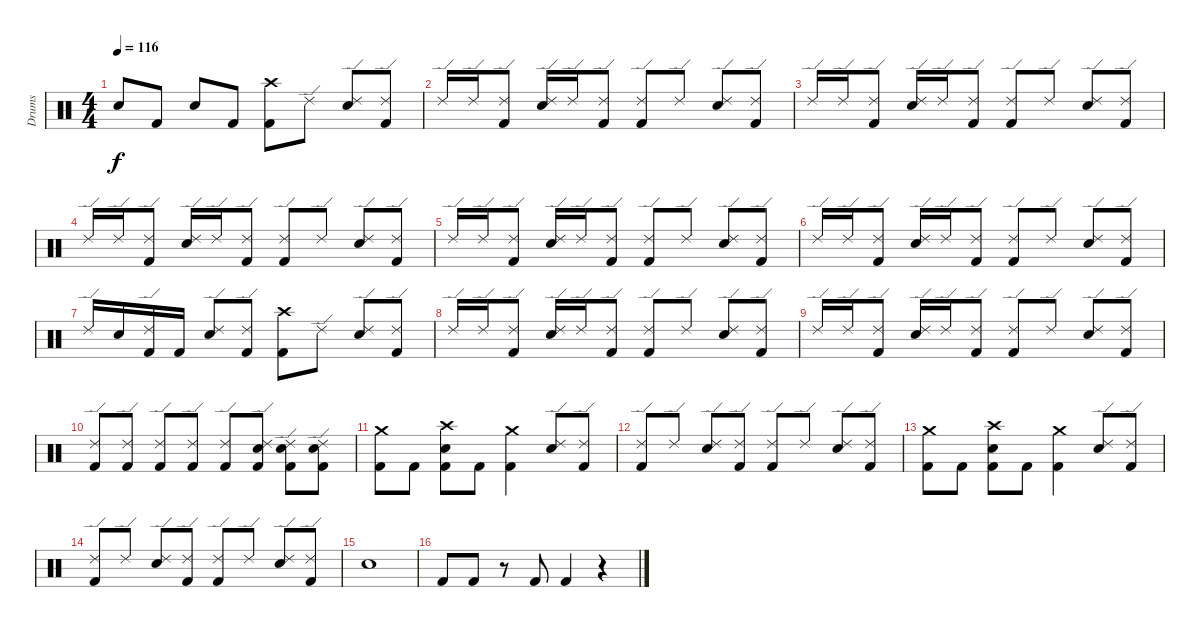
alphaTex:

\track ("Drums" "Drums") {instrument percussion}
\staff {score}
\articulation defaults
\ts (4 4)
\tempo 116
\clef neutral
\ks c "Electric Snare (hit)".8{dy f} "Kick (hit) 2".8 "Electric Snare (hit)".8 "Kick (hit) 2".8
("Kick (hit) 2" "Crash high (hit)").8 "Ride (edge) 2".8 ("Electric Snare (hit)" "Ride (edge) 2").8 ("Kick (hit) 2" "Ride (edge) 2").8 |
"Ride (edge) 2".16 "Ride (edge) 2".16 ("Kick (hit) 2" "Ride (edge) 2").8 ("Electric Snare (hit)" "Ride (edge) 2").16 "Ride (edge) 2".16 ("Kick (hit) 2" "Ride (edge) 2").8 ("Kick (hit) 2" "Ride (edge) 2").8 "Ride (edge) 2".8 ("Electric Snare (hit)" "Ride (edge) 2").8 ("Kick (hit) 2" "Ride (edge) 2").8 |
"Ride (edge) 2".16 "Ride (edge) 2".16 ("Kick (hit) 2" "Ride (edge) 2").8 ("Electric Snare (hit)" "Ride (edge) 2").16 "Ride (edge) 2".16 ("Kick (hit) 2" "Ride (edge) 2").8 ("Kick (hit) 2" "Ride (edge) 2").8 "Ride (edge) 2".8 ("Electric Snare (hit)" "Ride (edge) 2").8 ("Kick (hit) 2" "Ride (edge) 2").8 |
"Ride (edge) 2".16 "Ride (edge) 2".16 ("Kick (hit) 2" "Ride (edge) 2").8 ("Electric Snare (hit)" "Ride (edge) 2").16 "Ride (edge) 2".16 ("Kick (hit) 2" "Ride (edge) 2").8 ("Kick (hit) 2" "Ride (edge) 2").8 "Ride (edge) 2".8 ("Electric Snare (hit)" "Ride (edge) 2").8 ("Kick (hit) 2" "Ride (edge) 2").8 |
"Ride (edge) 2".16 "Ride (edge) 2".16 ("Kick (hit) 2" "Ride (edge) 2").8 ("Electric Snare (hit)" "Ride (edge) 2").16 "Ride (edge) 2".16 ("Kick (hit) 2" "Ride (edge) 2").8 ("Kick (hit) 2" "Ride (edge) 2").8 "Ride (edge) 2".8 ("Electric Snare (hit)" "Ride (edge) 2").8 ("Kick (hit) 2" "Ride (edge) 2").8 |
"Ride (edge) 2".16 "Ride (edge) 2".16 ("Kick (hit) 2" "Ride (edge) 2").8 ("Electric Snare (hit)" "Ride (edge) 2").16 "Ride (edge) 2".16 ("Kick (hit) 2" "Ride (edge) 2").8 ("Kick (hit) 2" "Ride (edge) 2").8 "Ride (edge) 2".8 ("Electric Snare (hit)" "Ride (edge) 2").8 ("Kick (hit) 2" "Ride (edge) 2").8 |
"Ride (edge) 2".16 "Electric Snare (hit)".16 ("Kick (hit) 2" "Ride (edge) 2").16 "Kick (hit) 2".16 ("Electric Snare (hit)" "Ride (edge) 2").8 ("Kick (hit) 2" "Ride (edge) 2").8 ("Kick (hit) 2" "Crash high (hit)").8 "Ride (edge) 2".8 ("Electric Snare (hit)" "Ride (edge) 2").8 ("Kick (hit) 2" "Ride (edge) 2").8 |
"Ride (edge) 2".16 "Ride (edge) 2".16 ("Kick (hit) 2" "Ride (edge) 2").8 ("Electric Snare (hit)" "Ride (edge) 2").16 "Ride (edge) 2".16 ("Kick (hit) 2" "Ride (edge) 2").8 ("Kick (hit) 2" "Ride (edge) 2").8 "Ride (edge) 2".8 ("Electric Snare (hit)" "Ride (edge) 2").8 ("Kick (hit) 2" "Ride (edge) 2").8 |
"Ride (edge) 2".16 "Ride (edge) 2".16 ("Kick (hit) 2" "Ride (edge) 2").8 ("Electric Snare (hit)" "Ride (edge) 2").16 "Ride (edge) 2".16 ("Kick (hit) 2" "Ride (edge) 2").8 ("Kick (hit) 2" "Ride (edge) 2").8 "Ride (edge) 2".8 ("Electric Snare (hit)" "Ride (edge) 2").8 ("Kick (hit) 2" "Ride (edge) 2").8 |
("Kick (hit) 2" "Ride (edge) 2").8 ("Kick (hit) 2" "Ride (edge) 2").8 ("Kick (hit) 2" "Ride (edge) 2").8 ("Kick (hit) 2" "Ride (edge) 2").8 ("Kick (hit) 2" "Ride (edge) 2").8 ("Kick (hit) 2" "Electric Snare (hit)" "Ride (edge) 2").8 ("Kick (hit) 2" "Electric Snare (hit)" "Ride (edge) 2").8 ("Kick (hit) 2" "Electric Snare (hit)" "Ride (edge) 2").8 |
("Kick (hit) 2" "Crash medium (hit)").8 "Kick (hit) 2".8 ("Kick (hit) 2" "Electric Snare (hit)" "Crash high (hit)").8 "Kick (hit) 2".8 ("Kick (hit) 2" "Crash medium (hit)").4 ("Electric Snare (hit)" "Ride (edge) 2").8 ("Kick (hit) 2" "Ride (edge) 2").8 |
("Kick (hit) 2" "Ride (edge) 2").8 "Ride (edge) 2".8 ("Electric Snare (hit)" "Ride (edge) 2").8 ("Kick (hit) 2" "Ride (edge) 2").8 ("Kick (hit) 2" "Ride (edge) 2").8 "Ride (edge) 2".8 ("Electric Snare (hit)" "Ride (edge) 2").8 ("Kick (hit) 2" "Ride (edge) 2").8 |
("Kick (hit) 2" "Crash medium (hit)").8 "Kick (hit) 2".8 ("Kick (hit) 2" "Electric Snare (hit)" "Crash high (hit)").8 "Kick (hit) 2".8 ("Kick (hit) 2" "Crash medium (hit)").4 ("Electric Snare (hit)" "Ride (edge) 2").8 ("Kick (hit) 2" "Ride (edge) 2").8 |
("Kick (hit) 2" "Ride (edge) 2").8 "Ride (edge) 2".8 ("Electric Snare (hit)" "Ride (edge) 2").8 ("Kick (hit) 2" "Ride (edge) 2").8 ("Kick (hit) 2" "Ride (edge) 2").8 "Ride (edge) 2".8 ("Electric Snare (hit)" "Ride (edge) 2").8 ("Kick (hit) 2" "Ride (edge) 2").8 |
"Electric Snare (hit)".1 |
"Kick (hit) 2".8 "Kick (hit) 2".8 r.8 "Kick (hit) 2".8 "Kick (hit) 2".4 r.4
